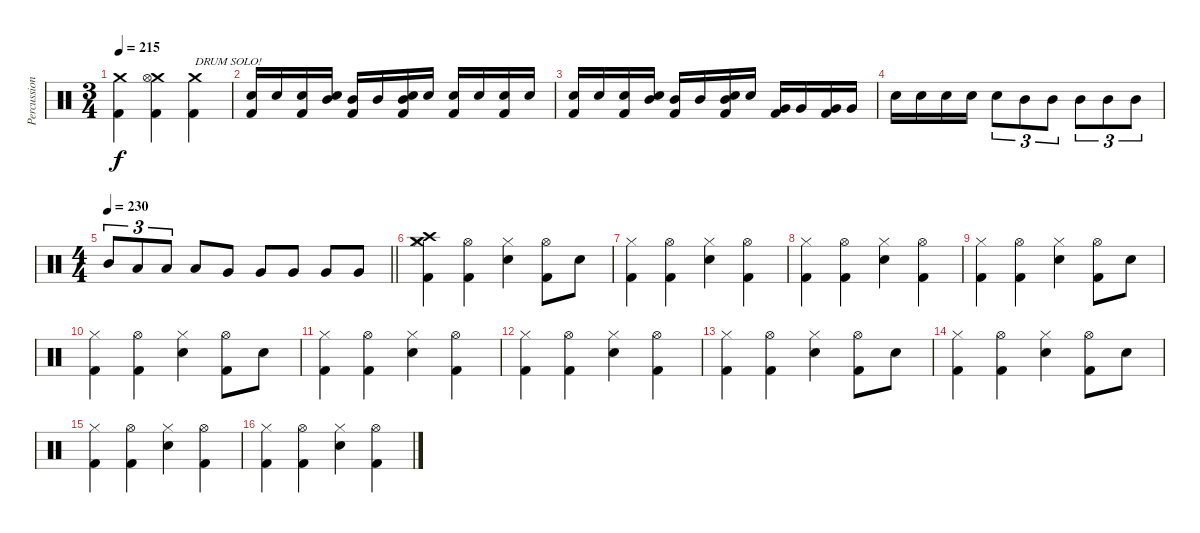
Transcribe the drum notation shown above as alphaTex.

\track ("Percussion" "Percussion") {instrument percussion}
\staff {score}
\articulation defaults
\ts (3 4)
\tempo 215
\clef neutral
\ks c
("Crash medium (hit)" "Kick (hit) 2").4{dy f} ("Crash medium (hit)" "Hi-Hat (open)" "Kick (hit) 2").4 ("Crash medium (hit)" "Kick (hit) 2").4{txt "DRUM SOLO!"} |
("Electric Snare (hit)" "Kick (hit) 2").16 "Electric Snare (hit)".16 ("Electric Snare (hit)" "Kick (hit) 2").16 ("Mid Tom (hit)" "Electric Snare (hit)").16 ("Mid Tom (hit)" "Kick (hit) 2").16 "Mid Tom (hit)".16 ("Mid Tom (hit)" "Electric Snare (hit)" "Kick (hit) 2").16 "Electric Snare (hit)".16 ("Electric Snare (hit)" "Kick (hit) 2").16 "Electric Snare (hit)".16 ("Electric Snare (hit)" "Kick (hit) 2").16 "Electric Snare (hit)".16 |
("Electric Snare (hit)" "Kick (hit) 2").16 "Electric Snare (hit)".16 ("Electric Snare (hit)" "Kick (hit) 2").16 ("Mid Tom (hit)" "Electric Snare (hit)").16 ("Mid Tom (hit)" "Kick (hit) 2").16 "Mid Tom (hit)".16 ("Mid Tom (hit)" "Electric Snare (hit)" "Kick (hit) 2").16 "Electric Snare (hit)".16 ("Very Low Tom (hit)" "Kick (hit) 2").16 "Very Low Tom (hit)".16 ("Very Low Tom (hit)" "Kick (hit) 2").16 "Very Low Tom (hit)".16 |
"Electric Snare (hit)".16 "Electric Snare (hit)".16 "Electric Snare (hit)".16 "Electric Snare (hit)".16 "Electric Snare (hit)".8{tu (3 2)} "Mid Tom (hit)".8{tu (3 2)} "Mid Tom (hit)".8{tu (3 2)} "Mid Tom (hit)".8{tu (3 2)} "Mid Tom (hit)".8{tu (3 2)} "Mid Tom (hit)".8{tu (3 2)} |
\ts (4 4)
\tempo 230
\barLineRight lightlight "Mid Tom (hit)".8{tu (3 2)} "Low Tom (hit)".8{tu (3 2)} "Low Tom (hit)".8{tu (3 2)} "Low Tom (hit)".8 "Very Low Tom (hit)".8 "Very Low Tom (hit)".8 "Very Low Tom (hit)".8 "Very Low Tom (hit)".8 "Very Low Tom (hit)".8
|
("Hi-Hat (closed)" "Crash medium (hit)" "Crash high (hit)" "Kick (hit) 2").4 ("Hi-Hat (open)" "Kick (hit) 2").4 ("Hi-Hat (closed)" "Electric Snare (hit)").4 ("Hi-Hat (open)" "Kick (hit) 2").8 "Electric Snare (hit)".8 |
("Hi-Hat (closed)" "Kick (hit) 2").4 ("Hi-Hat (open)" "Kick (hit) 2").4 ("Hi-Hat (closed)" "Electric Snare (hit)").4 ("Hi-Hat (open)" "Kick (hit) 2").4 |
("Hi-Hat (closed)" "Kick (hit) 2").4 ("Hi-Hat (open)" "Kick (hit) 2").4 ("Hi-Hat (closed)" "Electric Snare (hit)").4 ("Hi-Hat (open)" "Kick (hit) 2").4 |
("Hi-Hat (closed)" "Kick (hit) 2").4 ("Hi-Hat (open)" "Kick (hit) 2").4 ("Hi-Hat (closed)" "Electric Snare (hit)").4 ("Hi-Hat (open)" "Kick (hit) 2").8 "Electric Snare (hit)".8 |
("Hi-Hat (closed)" "Kick (hit) 2").4 ("Hi-Hat (open)" "Kick (hit) 2").4 ("Hi-Hat (closed)" "Electric Snare (hit)").4 ("Hi-Hat (open)" "Kick (hit) 2").8 "Electric Snare (hit)".8 |
("Hi-Hat (closed)" "Kick (hit) 2").4 ("Hi-Hat (open)" "Kick (hit) 2").4 ("Hi-Hat (closed)" "Electric Snare (hit)").4 ("Hi-Hat (open)" "Kick (hit) 2").4 |
("Hi-Hat (closed)" "Kick (hit) 2").4 ("Hi-Hat (open)" "Kick (hit) 2").4 ("Hi-Hat (closed)" "Electric Snare (hit)").4 ("Hi-Hat (open)" "Kick (hit) 2").4 |
("Hi-Hat (closed)" "Kick (hit) 2").4 ("Hi-Hat (open)" "Kick (hit) 2").4 ("Hi-Hat (closed)" "Electric Snare (hit)").4 ("Hi-Hat (open)" "Kick (hit) 2").8 "Electric Snare (hit)".8 |
("Hi-Hat (closed)" "Kick (hit) 2").4 ("Hi-Hat (open)" "Kick (hit) 2").4 ("Hi-Hat (closed)" "Electric Snare (hit)").4 ("Hi-Hat (open)" "Kick (hit) 2").8 "Electric Snare (hit)".8 |
("Hi-Hat (closed)" "Kick (hit) 2").4 ("Hi-Hat (open)" "Kick (hit) 2").4 ("Hi-Hat (closed)" "Electric Snare (hit)").4 ("Hi-Hat (open)" "Kick (hit) 2").4 |
("Hi-Hat (closed)" "Kick (hit) 2").4 ("Hi-Hat (open)" "Kick (hit) 2").4 ("Hi-Hat (closed)" "Electric Snare (hit)").4 ("Hi-Hat (open)" "Kick (hit) 2").4
